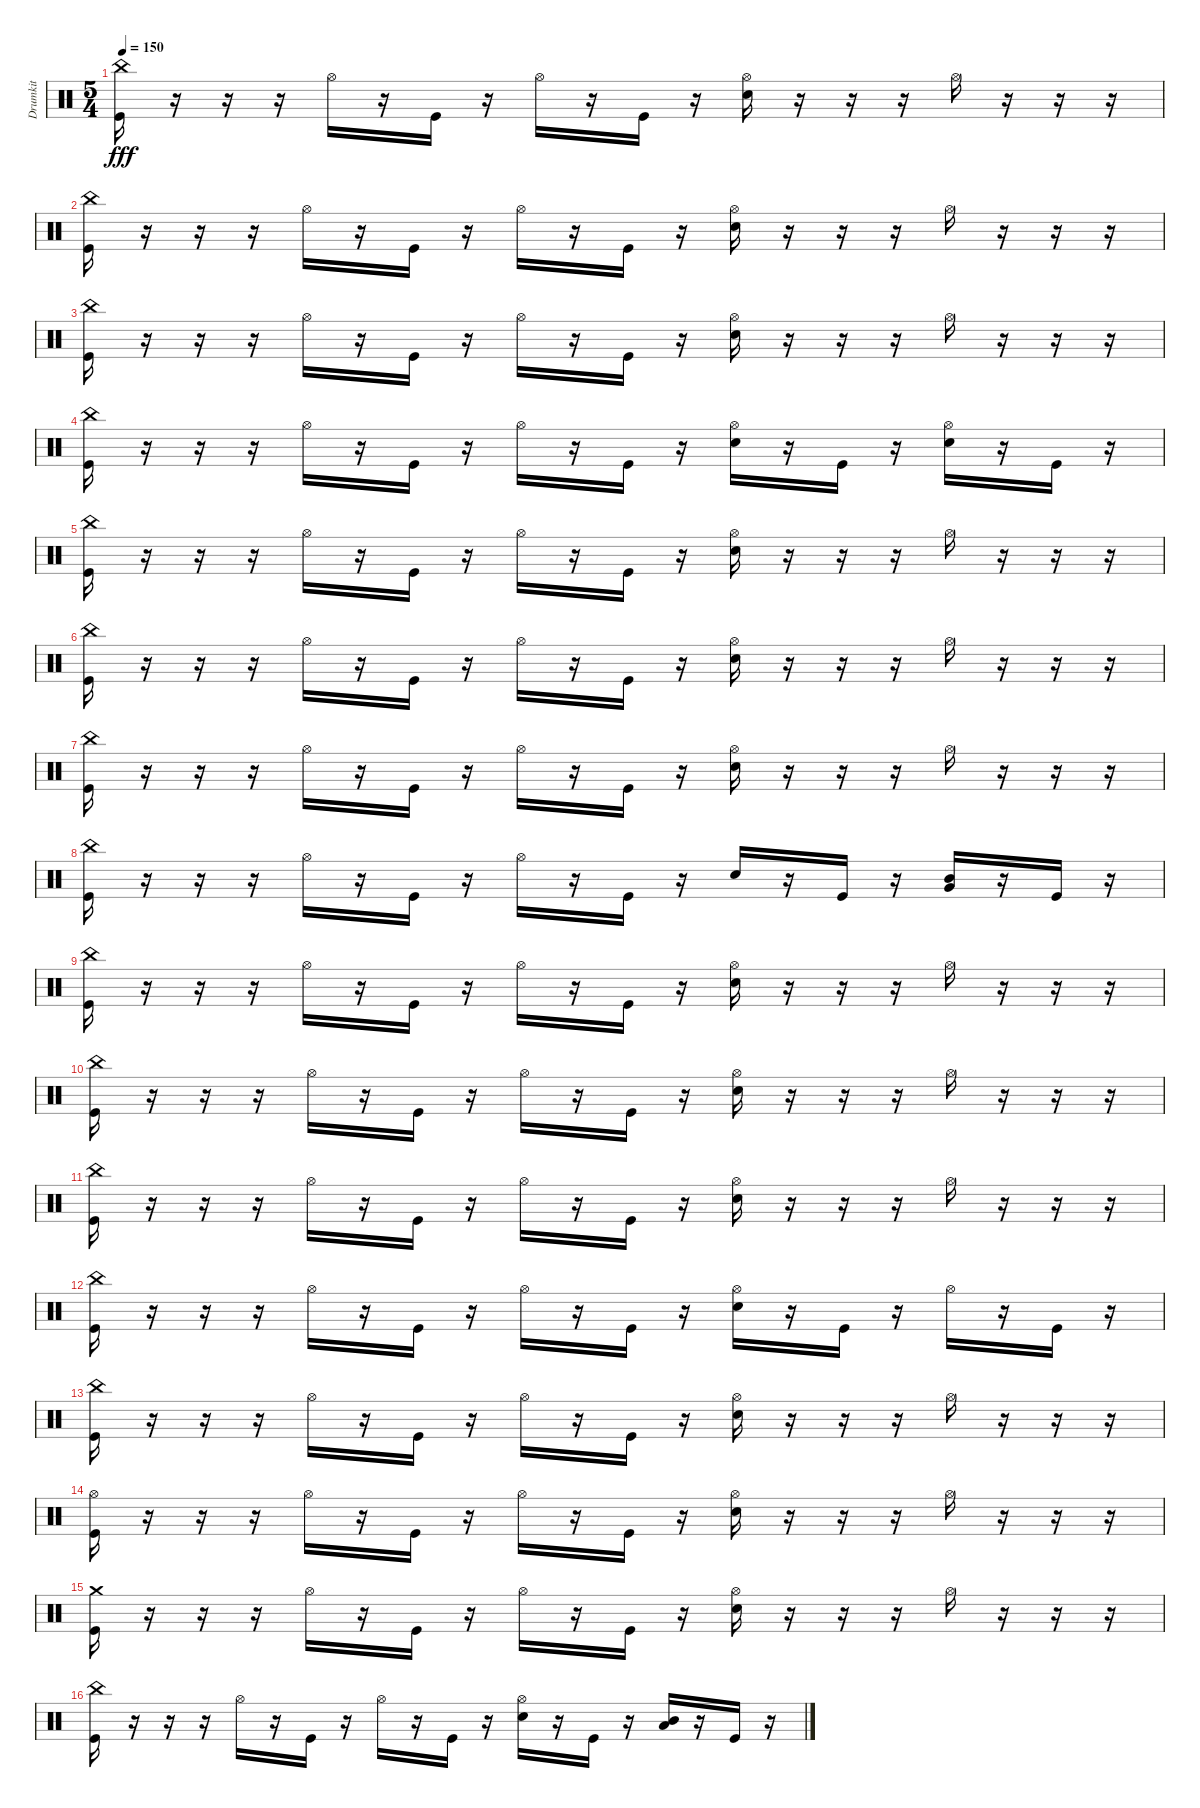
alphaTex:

\track ("Drumkit" "Drumkit") {instrument percussion}
\staff {score}
\articulation defaults
\ts (5 4)
\tempo 150
\clef neutral
\ks c
("Kick (hit)" "China (hit)").16{dy fff} r.16 r.16 r.16 "Hi-Hat (open)".16 r.16 "Kick (hit)".16 r.16 "Hi-Hat (open)".16 r.16 "Kick (hit)".16 r.16 ("Hi-Hat (open)" "Snare (hit) 2").16 r.16 r.16 r.16 "Hi-Hat (open)".16 r.16 r.16 r.16 |
("Kick (hit)" "China (hit)").16 r.16 r.16 r.16 "Hi-Hat (open)".16 r.16 "Kick (hit)".16 r.16 "Hi-Hat (open)".16 r.16 "Kick (hit)".16 r.16 ("Hi-Hat (open)" "Snare (hit) 2").16 r.16 r.16 r.16 "Hi-Hat (open)".16 r.16 r.16 r.16 |
("Kick (hit)" "China (hit)").16 r.16 r.16 r.16 "Hi-Hat (open)".16 r.16 "Kick (hit)".16 r.16 "Hi-Hat (open)".16 r.16 "Kick (hit)".16 r.16 ("Hi-Hat (open)" "Snare (hit) 2").16 r.16 r.16 r.16 "Hi-Hat (open)".16 r.16 r.16 r.16 |
("Kick (hit)" "China (hit)").16 r.16 r.16 r.16 "Hi-Hat (open)".16 r.16 "Kick (hit)".16 r.16 "Hi-Hat (open)".16 r.16 "Kick (hit)".16 r.16 ("Hi-Hat (open)" "Snare (hit) 2").16 r.16 "Kick (hit)".16 r.16 ("Hi-Hat (open)" "Snare (hit) 2").16 r.16 "Kick (hit)".16 r.16 |
("Kick (hit)" "China (hit)").16 r.16 r.16 r.16 "Hi-Hat (open)".16 r.16 "Kick (hit)".16 r.16 "Hi-Hat (open)".16 r.16 "Kick (hit)".16 r.16 ("Hi-Hat (open)" "Snare (hit) 2").16 r.16 r.16 r.16 "Hi-Hat (open)".16 r.16 r.16 r.16 |
("Kick (hit)" "China (hit)").16 r.16 r.16 r.16 "Hi-Hat (open)".16 r.16 "Kick (hit)".16 r.16 "Hi-Hat (open)".16 r.16 "Kick (hit)".16 r.16 ("Hi-Hat (open)" "Snare (hit) 2").16 r.16 r.16 r.16 "Hi-Hat (open)".16 r.16 r.16 r.16 |
("Kick (hit)" "China (hit)").16 r.16 r.16 r.16 "Hi-Hat (open)".16 r.16 "Kick (hit)".16 r.16 "Hi-Hat (open)".16 r.16 "Kick (hit)".16 r.16 ("Hi-Hat (open)" "Snare (hit) 2").16 r.16 r.16 r.16 "Hi-Hat (open)".16 r.16 r.16 r.16 |
("Kick (hit)" "China (hit)").16 r.16 r.16 r.16 "Hi-Hat (open)".16 r.16 "Kick (hit)".16 r.16 "Hi-Hat (open)".16 r.16 "Kick (hit)".16 r.16 "Snare (hit) 2".16 r.16 "Kick (hit)".16 r.16 ("Very Low Tom (hit)" "Mid Tom (hit)").16 r.16 "Kick (hit)".16 r.16 |
("Kick (hit)" "China (hit)").16 r.16 r.16 r.16 "Hi-Hat (open)".16 r.16 "Kick (hit)".16 r.16 "Hi-Hat (open)".16 r.16 "Kick (hit)".16 r.16 ("Hi-Hat (open)" "Snare (hit) 2").16 r.16 r.16 r.16 "Hi-Hat (open)".16 r.16 r.16 r.16 |
("Kick (hit)" "China (hit)").16 r.16 r.16 r.16 "Hi-Hat (open)".16 r.16 "Kick (hit)".16 r.16 "Hi-Hat (open)".16 r.16 "Kick (hit)".16 r.16 ("Hi-Hat (open)" "Snare (hit) 2").16 r.16 r.16 r.16 "Hi-Hat (open)".16 r.16 r.16 r.16 |
("Kick (hit)" "China (hit)").16 r.16 r.16 r.16 "Hi-Hat (open)".16 r.16 "Kick (hit)".16 r.16 "Hi-Hat (open)".16 r.16 "Kick (hit)".16 r.16 ("Hi-Hat (open)" "Snare (hit) 2").16 r.16 r.16 r.16 "Hi-Hat (open)".16 r.16 r.16 r.16 |
("Kick (hit)" "China (hit)").16 r.16 r.16 r.16 "Hi-Hat (open)".16 r.16 "Kick (hit)".16 r.16 "Hi-Hat (open)".16 r.16 "Kick (hit)".16 r.16 ("Hi-Hat (open)" "Snare (hit) 2").16 r.16 "Kick (hit)".16 r.16 "Hi-Hat (open)".16 r.16 "Kick (hit)".16 r.16 |
("Kick (hit)" "China (hit)").16 r.16 r.16 r.16 "Hi-Hat (open)".16 r.16 "Kick (hit)".16 r.16 "Hi-Hat (open)".16 r.16 "Kick (hit)".16 r.16 ("Hi-Hat (open)" "Snare (hit) 2").16 r.16 r.16 r.16 "Hi-Hat (open)".16 r.16 r.16 r.16 |
("Kick (hit)" "Hi-Hat (open)").16 r.16 r.16 r.16 "Hi-Hat (open)".16 r.16 "Kick (hit)".16 r.16 "Hi-Hat (open)".16 r.16 "Kick (hit)".16 r.16 ("Hi-Hat (open)" "Snare (hit) 2").16 r.16 r.16 r.16 "Hi-Hat (open)".16 r.16 r.16 r.16 |
("Kick (hit)" "Crash medium (hit)").16 r.16 r.16 r.16 "Hi-Hat (open)".16 r.16 "Kick (hit)".16 r.16 "Hi-Hat (open)".16 r.16 "Kick (hit)".16 r.16 ("Hi-Hat (open)" "Snare (hit) 2").16 r.16 r.16 r.16 "Hi-Hat (open)".16 r.16 r.16 r.16 |
("Kick (hit)" "China (hit)").16 r.16 r.16 r.16 "Hi-Hat (open)".16 r.16 "Kick (hit)".16 r.16 "Hi-Hat (open)".16 r.16 "Kick (hit)".16 r.16 ("Hi-Hat (open)" "Snare (hit) 2").16 r.16 "Kick (hit)".16 r.16 ("Low Floor Tom (hit)" "Mid Tom (hit)").16 r.16 "Kick (hit)".16 r.16
